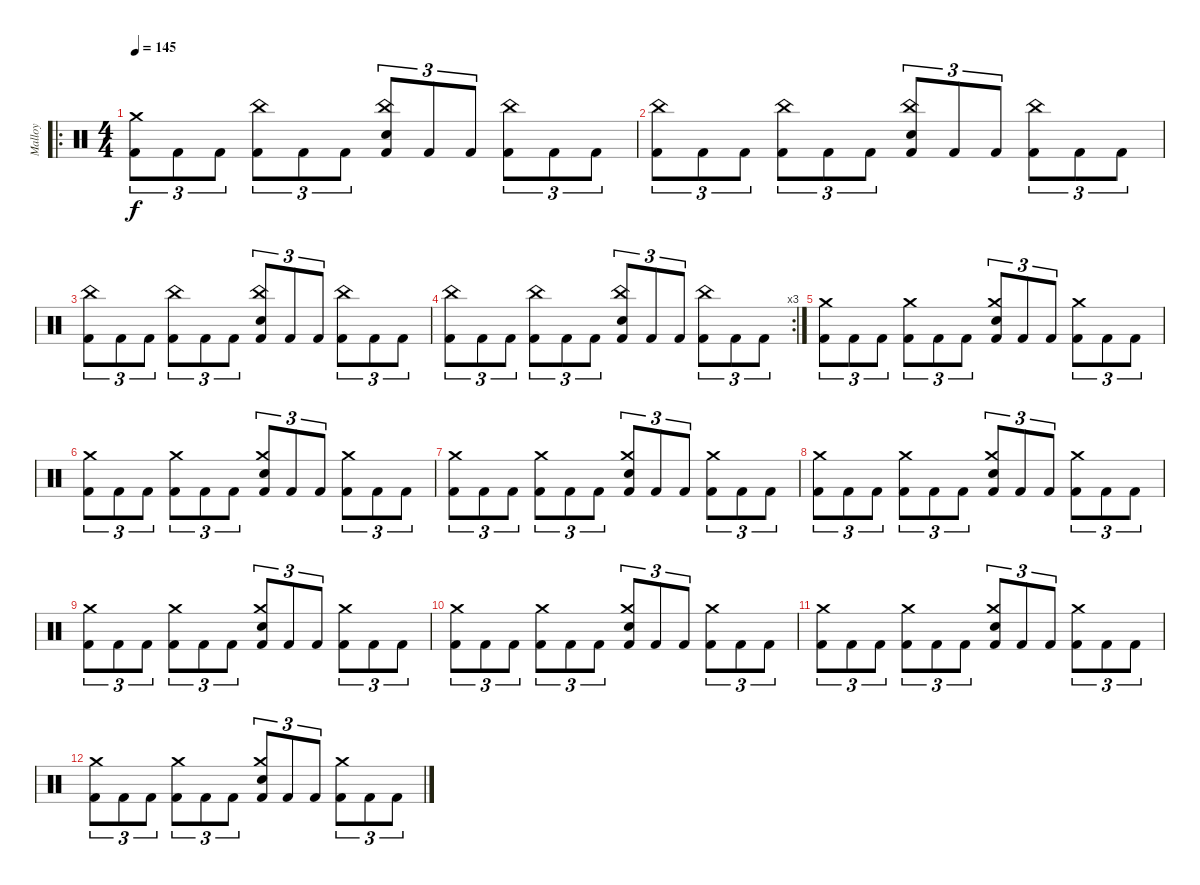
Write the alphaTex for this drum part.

\track ("Malloy" "Malloy") {instrument percussion}
\staff {score}
\articulation defaults
\ro
\ts (4 4)
\tempo 145
\clef neutral
\ks c
("Kick (hit) 2" "Crash medium (hit)").8{tu (3 2) dy f} "Kick (hit) 2".8{tu (3 2)} "Kick (hit) 2".8{tu (3 2)} ("Kick (hit) 2" "China (hit)").8{tu (3 2)} "Kick (hit) 2".8{tu (3 2)} "Kick (hit) 2".8{tu (3 2)} ("Kick (hit) 2" "Electric Snare (hit)" "China (hit)").8{tu (3 2)} "Kick (hit) 2".8{tu (3 2)} "Kick (hit) 2".8{tu (3 2)} ("Kick (hit) 2" "China (hit)").8{tu (3 2)} "Kick (hit) 2".8{tu (3 2)} "Kick (hit) 2".8{tu (3 2)} |
("Kick (hit) 2" "China (hit)").8{tu (3 2)} "Kick (hit) 2".8{tu (3 2)} "Kick (hit) 2".8{tu (3 2)} ("Kick (hit) 2" "China (hit)").8{tu (3 2)} "Kick (hit) 2".8{tu (3 2)} "Kick (hit) 2".8{tu (3 2)} ("Kick (hit) 2" "Electric Snare (hit)" "China (hit)").8{tu (3 2)} "Kick (hit) 2".8{tu (3 2)} "Kick (hit) 2".8{tu (3 2)} ("Kick (hit) 2" "China (hit)").8{tu (3 2)} "Kick (hit) 2".8{tu (3 2)} "Kick (hit) 2".8{tu (3 2)} |
("Kick (hit) 2" "China (hit)").8{tu (3 2)} "Kick (hit) 2".8{tu (3 2)} "Kick (hit) 2".8{tu (3 2)} ("Kick (hit) 2" "China (hit)").8{tu (3 2)} "Kick (hit) 2".8{tu (3 2)} "Kick (hit) 2".8{tu (3 2)} ("Kick (hit) 2" "Electric Snare (hit)" "China (hit)").8{tu (3 2)} "Kick (hit) 2".8{tu (3 2)} "Kick (hit) 2".8{tu (3 2)} ("Kick (hit) 2" "China (hit)").8{tu (3 2)} "Kick (hit) 2".8{tu (3 2)} "Kick (hit) 2".8{tu (3 2)} |
\rc 3
("Kick (hit) 2" "China (hit)").8{tu (3 2)} "Kick (hit) 2".8{tu (3 2)} "Kick (hit) 2".8{tu (3 2)} ("Kick (hit) 2" "China (hit)").8{tu (3 2)} "Kick (hit) 2".8{tu (3 2)} "Kick (hit) 2".8{tu (3 2)} ("Kick (hit) 2" "Electric Snare (hit)" "China (hit)").8{tu (3 2)} "Kick (hit) 2".8{tu (3 2)} "Kick (hit) 2".8{tu (3 2)} ("Kick (hit) 2" "China (hit)").8{tu (3 2)} "Kick (hit) 2".8{tu (3 2)} "Kick (hit) 2".8{tu (3 2)} |
("Kick (hit) 2" "Crash medium (hit)").8{tu (3 2)} "Kick (hit) 2".8{tu (3 2)} "Kick (hit) 2".8{tu (3 2)} ("Kick (hit) 2" "Crash medium (hit)").8{tu (3 2)} "Kick (hit) 2".8{tu (3 2)} "Kick (hit) 2".8{tu (3 2)} ("Kick (hit) 2" "Electric Snare (hit)" "Crash medium (hit)").8{tu (3 2)} "Kick (hit) 2".8{tu (3 2)} "Kick (hit) 2".8{tu (3 2)} ("Kick (hit) 2" "Crash medium (hit)").8{tu (3 2)} "Kick (hit) 2".8{tu (3 2)} "Kick (hit) 2".8{tu (3 2)} |
("Kick (hit) 2" "Crash medium (hit)").8{tu (3 2)} "Kick (hit) 2".8{tu (3 2)} "Kick (hit) 2".8{tu (3 2)} ("Kick (hit) 2" "Crash medium (hit)").8{tu (3 2)} "Kick (hit) 2".8{tu (3 2)} "Kick (hit) 2".8{tu (3 2)} ("Kick (hit) 2" "Electric Snare (hit)" "Crash medium (hit)").8{tu (3 2)} "Kick (hit) 2".8{tu (3 2)} "Kick (hit) 2".8{tu (3 2)} ("Kick (hit) 2" "Crash medium (hit)").8{tu (3 2)} "Kick (hit) 2".8{tu (3 2)} "Kick (hit) 2".8{tu (3 2)} |
("Kick (hit) 2" "Crash medium (hit)").8{tu (3 2)} "Kick (hit) 2".8{tu (3 2)} "Kick (hit) 2".8{tu (3 2)} ("Kick (hit) 2" "Crash medium (hit)").8{tu (3 2)} "Kick (hit) 2".8{tu (3 2)} "Kick (hit) 2".8{tu (3 2)} ("Kick (hit) 2" "Electric Snare (hit)" "Crash medium (hit)").8{tu (3 2)} "Kick (hit) 2".8{tu (3 2)} "Kick (hit) 2".8{tu (3 2)} ("Kick (hit) 2" "Crash medium (hit)").8{tu (3 2)} "Kick (hit) 2".8{tu (3 2)} "Kick (hit) 2".8{tu (3 2)} |
("Kick (hit) 2" "Crash medium (hit)").8{tu (3 2)} "Kick (hit) 2".8{tu (3 2)} "Kick (hit) 2".8{tu (3 2)} ("Kick (hit) 2" "Crash medium (hit)").8{tu (3 2)} "Kick (hit) 2".8{tu (3 2)} "Kick (hit) 2".8{tu (3 2)} ("Kick (hit) 2" "Electric Snare (hit)" "Crash medium (hit)").8{tu (3 2)} "Kick (hit) 2".8{tu (3 2)} "Kick (hit) 2".8{tu (3 2)} ("Kick (hit) 2" "Crash medium (hit)").8{tu (3 2)} "Kick (hit) 2".8{tu (3 2)} "Kick (hit) 2".8{tu (3 2)} |
("Kick (hit) 2" "Crash medium (hit)").8{tu (3 2)} "Kick (hit) 2".8{tu (3 2)} "Kick (hit) 2".8{tu (3 2)} ("Kick (hit) 2" "Crash medium (hit)").8{tu (3 2)} "Kick (hit) 2".8{tu (3 2)} "Kick (hit) 2".8{tu (3 2)} ("Kick (hit) 2" "Electric Snare (hit)" "Crash medium (hit)").8{tu (3 2)} "Kick (hit) 2".8{tu (3 2)} "Kick (hit) 2".8{tu (3 2)} ("Kick (hit) 2" "Crash medium (hit)").8{tu (3 2)} "Kick (hit) 2".8{tu (3 2)} "Kick (hit) 2".8{tu (3 2)} |
("Kick (hit) 2" "Crash medium (hit)").8{tu (3 2)} "Kick (hit) 2".8{tu (3 2)} "Kick (hit) 2".8{tu (3 2)} ("Kick (hit) 2" "Crash medium (hit)").8{tu (3 2)} "Kick (hit) 2".8{tu (3 2)} "Kick (hit) 2".8{tu (3 2)} ("Kick (hit) 2" "Electric Snare (hit)" "Crash medium (hit)").8{tu (3 2)} "Kick (hit) 2".8{tu (3 2)} "Kick (hit) 2".8{tu (3 2)} ("Kick (hit) 2" "Crash medium (hit)").8{tu (3 2)} "Kick (hit) 2".8{tu (3 2)} "Kick (hit) 2".8{tu (3 2)} |
("Kick (hit) 2" "Crash medium (hit)").8{tu (3 2)} "Kick (hit) 2".8{tu (3 2)} "Kick (hit) 2".8{tu (3 2)} ("Kick (hit) 2" "Crash medium (hit)").8{tu (3 2)} "Kick (hit) 2".8{tu (3 2)} "Kick (hit) 2".8{tu (3 2)} ("Kick (hit) 2" "Electric Snare (hit)" "Crash medium (hit)").8{tu (3 2)} "Kick (hit) 2".8{tu (3 2)} "Kick (hit) 2".8{tu (3 2)} ("Kick (hit) 2" "Crash medium (hit)").8{tu (3 2)} "Kick (hit) 2".8{tu (3 2)} "Kick (hit) 2".8{tu (3 2)} |
("Kick (hit) 2" "Crash medium (hit)").8{tu (3 2)} "Kick (hit) 2".8{tu (3 2)} "Kick (hit) 2".8{tu (3 2)} ("Kick (hit) 2" "Crash medium (hit)").8{tu (3 2)} "Kick (hit) 2".8{tu (3 2)} "Kick (hit) 2".8{tu (3 2)} ("Kick (hit) 2" "Electric Snare (hit)" "Crash medium (hit)").8{tu (3 2)} "Kick (hit) 2".8{tu (3 2)} "Kick (hit) 2".8{tu (3 2)} ("Kick (hit) 2" "Crash medium (hit)").8{tu (3 2)} "Kick (hit) 2".8{tu (3 2)} "Kick (hit) 2".8{tu (3 2)}
